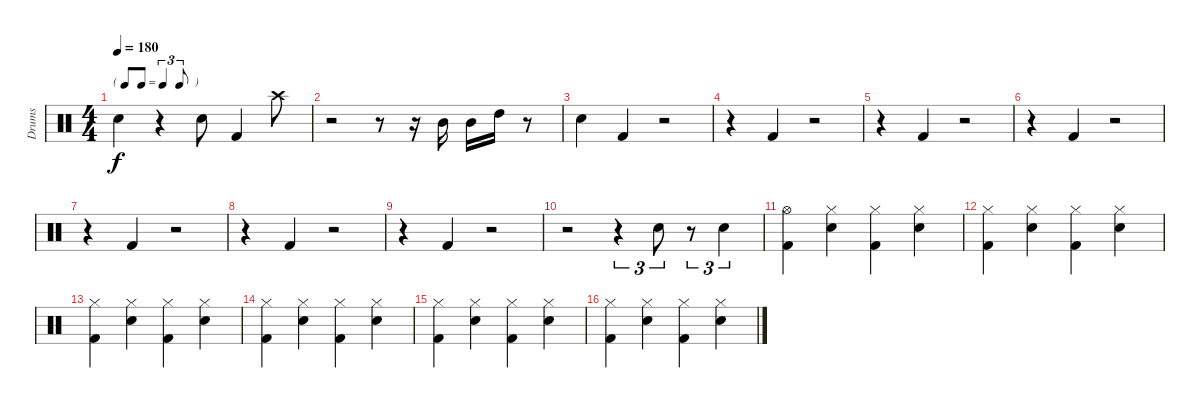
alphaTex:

\track ("Drums" "Drums") {instrument percussion}
\staff {score}
\articulation defaults
\ts (4 4)
\tf triplet8th
\tempo 180
\clef neutral
\ks c "Snare (hit) 2".4{dy f}
r.4 "Snare (hit) 2".8 "Kick (hit) 2".4 "Crash high (hit)".8 |
r.2 r.8 r.16 "Mid Tom (hit)".16 "Mid Tom (hit)".16 "High Tom (hit)".16 r.8 |
"Snare (hit) 2".4 "Kick (hit) 2".4 r.2 |
r.4 "Kick (hit) 2".4 r.2 |
r.4 "Kick (hit) 2".4 r.2 |
r.4 "Kick (hit) 2".4 r.2 |
r.4 "Kick (hit) 2".4 r.2 |
r.4 "Kick (hit) 2".4 r.2 |
r.4 "Kick (hit) 2".4 r.2 |
r.2 r.4{tu (3 2)} "Snare (hit) 2".8{tu (3 2)} r.8{tu (3 2)} "Snare (hit) 2".4{tu (3 2)} |
("Hi-Hat (open)" "Kick (hit) 2").4 ("Hi-Hat (closed)" "Snare (hit) 2").4 ("Hi-Hat (closed)" "Kick (hit) 2").4 ("Hi-Hat (closed)" "Snare (hit) 2").4 |
("Hi-Hat (closed)" "Kick (hit) 2").4 ("Hi-Hat (closed)" "Snare (hit) 2").4 ("Hi-Hat (closed)" "Kick (hit) 2").4 ("Hi-Hat (closed)" "Snare (hit) 2").4 |
("Hi-Hat (closed)" "Kick (hit) 2").4 ("Hi-Hat (closed)" "Snare (hit) 2").4 ("Hi-Hat (closed)" "Kick (hit) 2").4 ("Hi-Hat (closed)" "Snare (hit) 2").4 |
("Hi-Hat (closed)" "Kick (hit) 2").4 ("Hi-Hat (closed)" "Snare (hit) 2").4 ("Hi-Hat (closed)" "Kick (hit) 2").4 ("Hi-Hat (closed)" "Snare (hit) 2").4 |
("Hi-Hat (closed)" "Kick (hit) 2").4 ("Hi-Hat (closed)" "Snare (hit) 2").4 ("Hi-Hat (closed)" "Kick (hit) 2").4 ("Hi-Hat (closed)" "Snare (hit) 2").4 |
("Hi-Hat (closed)" "Kick (hit) 2").4 ("Hi-Hat (closed)" "Snare (hit) 2").4 ("Hi-Hat (closed)" "Kick (hit) 2").4 ("Hi-Hat (closed)" "Snare (hit) 2").4
